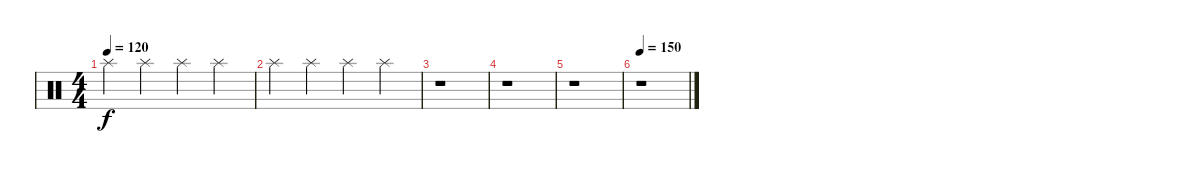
\track "" {instrument percussion}
\staff {score}
\articulation defaults
\ts (4 4)
\tempo 120
\clef neutral
\ks c "Splash (hit)".4{dy f} "Splash (hit)".4 "Splash (hit)".4 "Splash (hit)".4
|
"Splash (hit)".4 "Splash (hit)".4 "Splash (hit)".4 "Splash (hit)".4 |
r.1 |
r.1 |
r.1 |
\tempo 150
r.1
